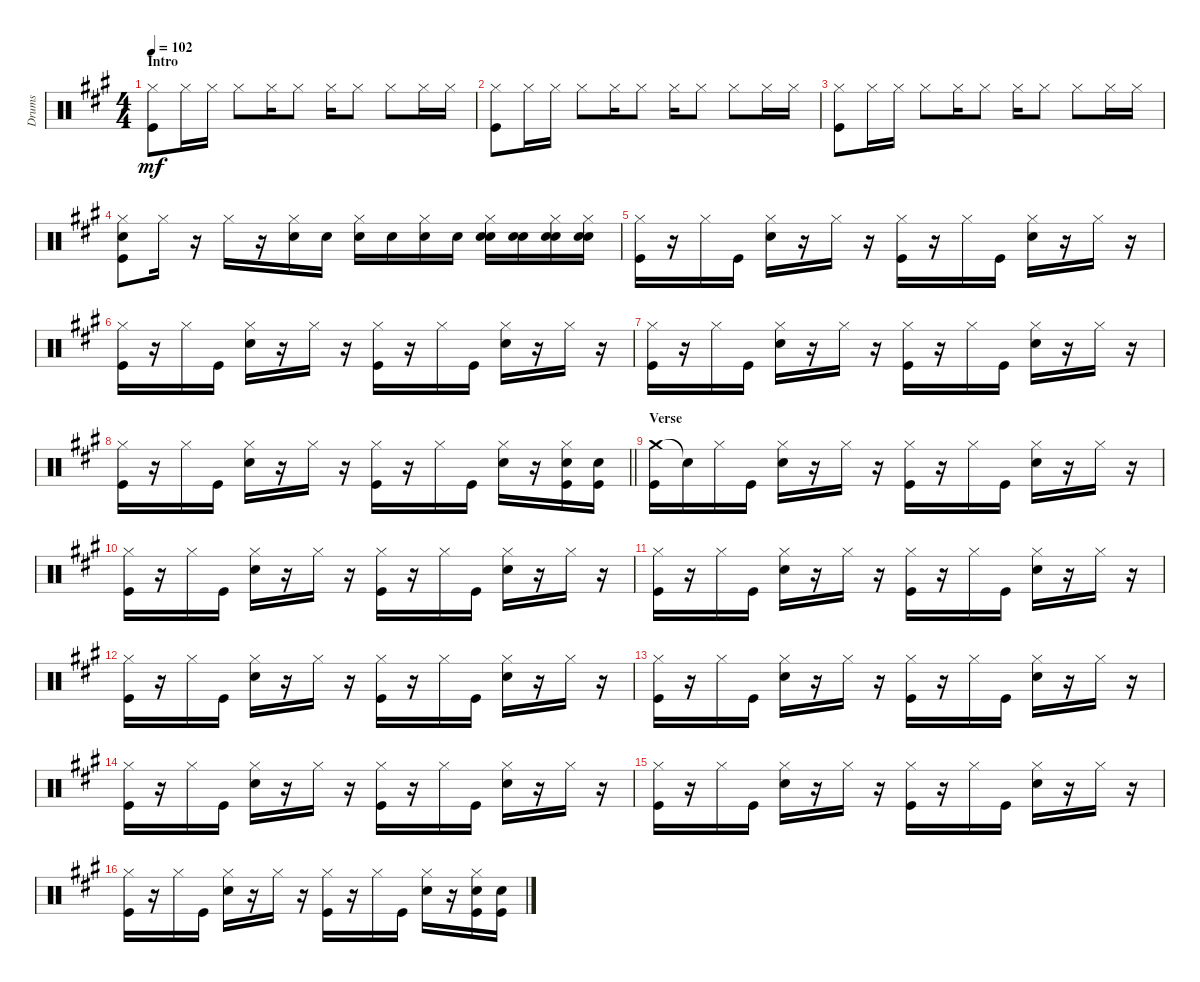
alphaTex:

\track ("Drums" "Drums") {instrument percussion}
\staff {score}
\articulation defaults
\ts (4 4)
\section ("" "Intro")
\tempo 102
\clef neutral
\ks f#minor
("Hi-Hat (closed)" "Kick (hit)").8{dy mf} "Hi-Hat (closed)".16 "Hi-Hat (closed)".16 "Hi-Hat (closed)".8 "Hi-Hat (closed)".16 "Hi-Hat (closed)".8 "Hi-Hat (closed)".16 "Hi-Hat (closed)".8 "Hi-Hat (closed)".8 "Hi-Hat (closed)".16 "Hi-Hat (closed)".16 |
("Hi-Hat (closed)" "Kick (hit)").8 "Hi-Hat (closed)".16 "Hi-Hat (closed)".16 "Hi-Hat (closed)".8 "Hi-Hat (closed)".16 "Hi-Hat (closed)".8 "Hi-Hat (closed)".16 "Hi-Hat (closed)".8 "Hi-Hat (closed)".8 "Hi-Hat (closed)".16 "Hi-Hat (closed)".16 |
("Hi-Hat (closed)" "Kick (hit)").8 "Hi-Hat (closed)".16 "Hi-Hat (closed)".16 "Hi-Hat (closed)".8 "Hi-Hat (closed)".16 "Hi-Hat (closed)".8 "Hi-Hat (closed)".16 "Hi-Hat (closed)".8 "Hi-Hat (closed)".8 "Hi-Hat (closed)".16 "Hi-Hat (closed)".16 |
("Hi-Hat (closed)" "Snare (hit) 2" "Kick (hit)").8 "Hi-Hat (closed)".16 r.16 "Hi-Hat (closed)".16 r.16 ("Hi-Hat (closed)" "Snare (hit) 2").16 "Snare (hit) 2".16 ("Hi-Hat (closed)" "Snare (hit) 2").16 "Snare (hit) 2".16 ("Hi-Hat (closed)" "Snare (hit) 2").16 "Snare (hit) 2".16 ("Hi-Hat (closed)" "Electric Snare (hit)" "Snare (hit) 2").16 ("Electric Snare (hit)" "Snare (hit) 2").16 ("Hi-Hat (closed)" "Electric Snare (hit)" "Snare (hit) 2").16 ("Hi-Hat (closed)" "Electric Snare (hit)" "Snare (hit) 2").16 |
("Hi-Hat (closed)" "Kick (hit)").16 r.16 "Hi-Hat (closed)".16 "Kick (hit)".16 ("Hi-Hat (closed)" "Snare (hit) 2").16 r.16 "Hi-Hat (closed)".16 r.16 ("Hi-Hat (closed)" "Kick (hit)").16 r.16 "Hi-Hat (closed)".16 "Kick (hit)".16 ("Hi-Hat (closed)" "Snare (hit) 2").16 r.16 "Hi-Hat (closed)".16 r.16 |
("Hi-Hat (closed)" "Kick (hit)").16 r.16 "Hi-Hat (closed)".16 "Kick (hit)".16 ("Hi-Hat (closed)" "Electric Snare (hit)").16 r.16 "Hi-Hat (closed)".16 r.16 ("Hi-Hat (closed)" "Kick (hit)").16 r.16 "Hi-Hat (closed)".16 "Kick (hit)".16 ("Hi-Hat (closed)" "Snare (hit) 2").16 r.16 "Hi-Hat (closed)".16 r.16 |
("Hi-Hat (closed)" "Kick (hit)").16 r.16 "Hi-Hat (closed)".16 "Kick (hit)".16 ("Hi-Hat (closed)" "Snare (hit) 2").16 r.16 "Hi-Hat (closed)".16 r.16 ("Hi-Hat (closed)" "Kick (hit)").16 r.16 "Hi-Hat (closed)".16 "Kick (hit)".16 ("Hi-Hat (closed)" "Snare (hit) 2").16 r.16 "Hi-Hat (closed)".16 r.16 |
\barLineRight lightlight
("Hi-Hat (closed)" "Kick (hit)").16 r.16 "Hi-Hat (closed)".16 "Kick (hit)".16 ("Hi-Hat (closed)" "Snare (hit) 2").16 r.16 "Hi-Hat (closed)".16 r.16 ("Hi-Hat (closed)" "Kick (hit)").16 r.16 "Hi-Hat (closed)".16 "Kick (hit)".16 ("Hi-Hat (closed)" "Snare (hit) 2").16 r.16 ("Hi-Hat (closed)" "Snare (hit) 2" "Kick (hit)").16 ("Snare (hit) 2" "Kick (hit)").16 |
\section ("" "Verse")
("Crash medium (hit)" "Kick (hit)").16 "Snare (hit)"{t}.16 "Hi-Hat (closed)".16 "Kick (hit)".16 ("Hi-Hat (closed)" "Snare (hit) 2").16 r.16 "Hi-Hat (closed)".16 r.16 ("Hi-Hat (closed)" "Kick (hit)").16 r.16 "Hi-Hat (closed)".16 "Kick (hit)".16 ("Hi-Hat (closed)" "Snare (hit) 2").16 r.16 "Hi-Hat (closed)".16 r.16 |
("Hi-Hat (closed)" "Kick (hit)").16 r.16 "Hi-Hat (closed)".16 "Kick (hit)".16 ("Hi-Hat (closed)" "Snare (hit) 2").16 r.16 "Hi-Hat (closed)".16 r.16 ("Hi-Hat (closed)" "Kick (hit)").16 r.16 "Hi-Hat (closed)".16 "Kick (hit)".16 ("Hi-Hat (closed)" "Snare (hit) 2").16 r.16 "Hi-Hat (closed)".16 r.16 |
("Hi-Hat (closed)" "Kick (hit)").16 r.16 "Hi-Hat (closed)".16 "Kick (hit)".16 ("Hi-Hat (closed)" "Snare (hit) 2").16 r.16 "Hi-Hat (closed)".16 r.16 ("Hi-Hat (closed)" "Kick (hit)").16 r.16 "Hi-Hat (closed)".16 "Kick (hit)".16 ("Hi-Hat (closed)" "Snare (hit) 2").16 r.16 "Hi-Hat (closed)".16 r.16 |
("Hi-Hat (closed)" "Kick (hit)").16 r.16 "Hi-Hat (closed)".16 "Kick (hit)".16 ("Hi-Hat (closed)" "Snare (hit) 2").16 r.16 "Hi-Hat (closed)".16 r.16 ("Hi-Hat (closed)" "Kick (hit)").16 r.16 "Hi-Hat (closed)".16 "Kick (hit)".16 ("Hi-Hat (closed)" "Snare (hit) 2").16 r.16 "Hi-Hat (closed)".16 r.16 |
("Hi-Hat (closed)" "Kick (hit)").16 r.16 "Hi-Hat (closed)".16 "Kick (hit)".16 ("Hi-Hat (closed)" "Snare (hit) 2").16 r.16 "Hi-Hat (closed)".16 r.16 ("Hi-Hat (closed)" "Kick (hit)").16 r.16 "Hi-Hat (closed)".16 "Kick (hit)".16 ("Hi-Hat (closed)" "Snare (hit) 2").16 r.16 "Hi-Hat (closed)".16 r.16 |
("Hi-Hat (closed)" "Kick (hit)").16 r.16 "Hi-Hat (closed)".16 "Kick (hit)".16 ("Hi-Hat (closed)" "Snare (hit) 2").16 r.16 "Hi-Hat (closed)".16 r.16 ("Hi-Hat (closed)" "Kick (hit)").16 r.16 "Hi-Hat (closed)".16 "Kick (hit)".16 ("Hi-Hat (closed)" "Snare (hit) 2").16 r.16 "Hi-Hat (closed)".16 r.16 |
("Hi-Hat (closed)" "Kick (hit)").16 r.16 "Hi-Hat (closed)".16 "Kick (hit)".16 ("Hi-Hat (closed)" "Snare (hit) 2").16 r.16 "Hi-Hat (closed)".16 r.16 ("Hi-Hat (closed)" "Kick (hit)").16 r.16 "Hi-Hat (closed)".16 "Kick (hit)".16 ("Hi-Hat (closed)" "Snare (hit) 2").16 r.16 "Hi-Hat (closed)".16 r.16 |
("Hi-Hat (closed)" "Kick (hit)").16 r.16 "Hi-Hat (closed)".16 "Kick (hit)".16 ("Hi-Hat (closed)" "Snare (hit) 2").16 r.16 "Hi-Hat (closed)".16 r.16 ("Hi-Hat (closed)" "Kick (hit)").16 r.16 "Hi-Hat (closed)".16 "Kick (hit)".16 ("Hi-Hat (closed)" "Snare (hit) 2").16 r.16 ("Hi-Hat (closed)" "Snare (hit) 2" "Kick (hit)").16 ("Snare (hit) 2" "Kick (hit)").16
